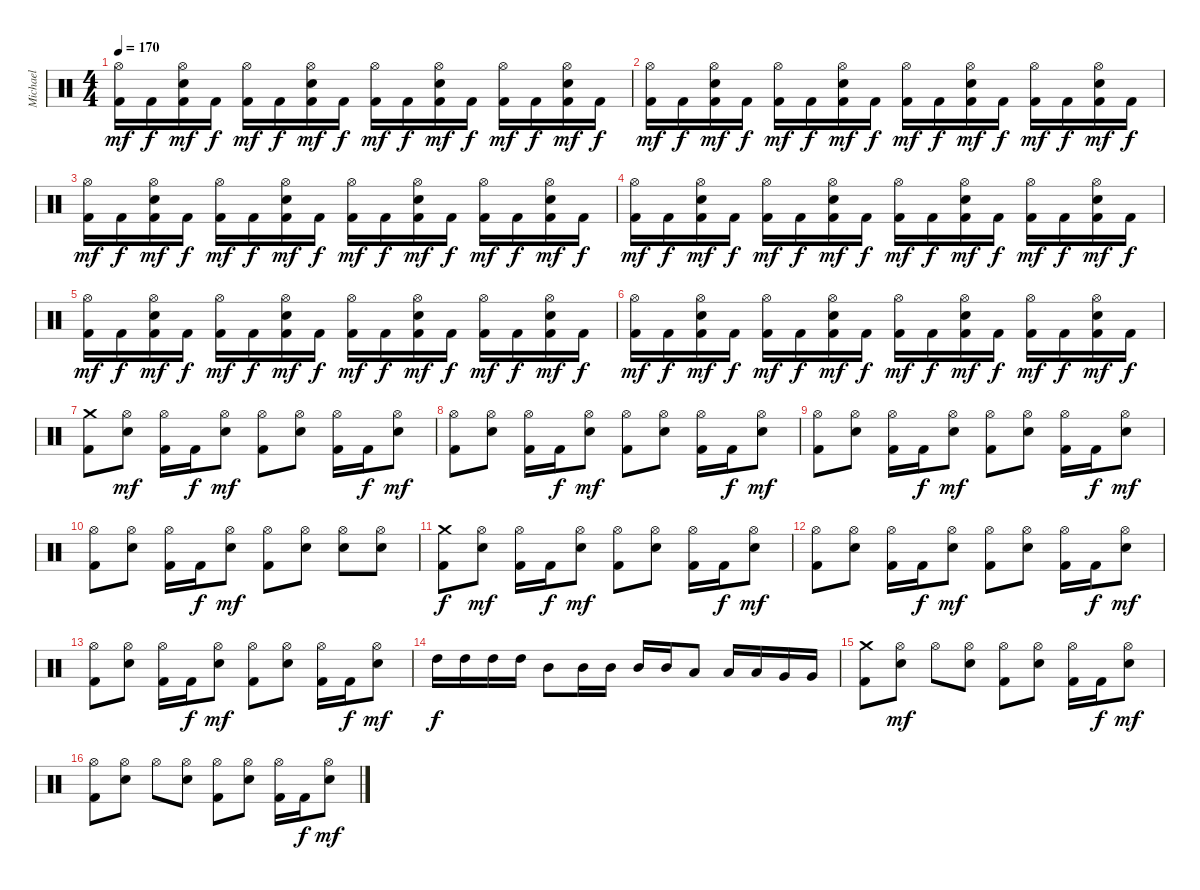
\track ("Michael" "Michael") {instrument percussion}
\staff {score}
\articulation defaults
\ts (4 4)
\tempo 170
\clef neutral
\ks c
("Hi-Hat (open)" "Kick (hit) 2").16{dy mf} "Kick (hit) 2".16{dy f} ("Hi-Hat (open)" "Electric Snare (hit)" "Kick (hit) 2").16{dy mf} "Kick (hit) 2".16{dy f} ("Hi-Hat (open)" "Kick (hit) 2").16{dy mf} "Kick (hit) 2".16{dy f} ("Hi-Hat (open)" "Electric Snare (hit)" "Kick (hit) 2").16{dy mf} "Kick (hit) 2".16{dy f} ("Hi-Hat (open)" "Kick (hit) 2").16{dy mf} "Kick (hit) 2".16{dy f} ("Hi-Hat (open)" "Electric Snare (hit)" "Kick (hit) 2").16{dy mf} "Kick (hit) 2".16{dy f} ("Hi-Hat (open)" "Kick (hit) 2").16{dy mf} "Kick (hit) 2".16{dy f} ("Hi-Hat (open)" "Electric Snare (hit)" "Kick (hit) 2").16{dy mf} "Kick (hit) 2".16{dy f} |
("Hi-Hat (open)" "Kick (hit) 2").16{dy mf} "Kick (hit) 2".16{dy f} ("Hi-Hat (open)" "Electric Snare (hit)" "Kick (hit) 2").16{dy mf} "Kick (hit) 2".16{dy f} ("Hi-Hat (open)" "Kick (hit) 2").16{dy mf} "Kick (hit) 2".16{dy f} ("Hi-Hat (open)" "Electric Snare (hit)" "Kick (hit) 2").16{dy mf} "Kick (hit) 2".16{dy f} ("Hi-Hat (open)" "Kick (hit) 2").16{dy mf} "Kick (hit) 2".16{dy f} ("Hi-Hat (open)" "Electric Snare (hit)" "Kick (hit) 2").16{dy mf} "Kick (hit) 2".16{dy f} ("Hi-Hat (open)" "Kick (hit) 2").16{dy mf} "Kick (hit) 2".16{dy f} ("Hi-Hat (open)" "Electric Snare (hit)" "Kick (hit) 2").16{dy mf} "Kick (hit) 2".16{dy f} |
("Hi-Hat (open)" "Kick (hit) 2").16{dy mf} "Kick (hit) 2".16{dy f} ("Hi-Hat (open)" "Electric Snare (hit)" "Kick (hit) 2").16{dy mf} "Kick (hit) 2".16{dy f} ("Hi-Hat (open)" "Kick (hit) 2").16{dy mf} "Kick (hit) 2".16{dy f} ("Hi-Hat (open)" "Electric Snare (hit)" "Kick (hit) 2").16{dy mf} "Kick (hit) 2".16{dy f} ("Hi-Hat (open)" "Kick (hit) 2").16{dy mf} "Kick (hit) 2".16{dy f} ("Hi-Hat (open)" "Electric Snare (hit)" "Kick (hit) 2").16{dy mf} "Kick (hit) 2".16{dy f} ("Hi-Hat (open)" "Kick (hit) 2").16{dy mf} "Kick (hit) 2".16{dy f} ("Hi-Hat (open)" "Electric Snare (hit)" "Kick (hit) 2").16{dy mf} "Kick (hit) 2".16{dy f} |
("Hi-Hat (open)" "Kick (hit) 2").16{dy mf} "Kick (hit) 2".16{dy f} ("Hi-Hat (open)" "Electric Snare (hit)" "Kick (hit) 2").16{dy mf} "Kick (hit) 2".16{dy f} ("Hi-Hat (open)" "Kick (hit) 2").16{dy mf} "Kick (hit) 2".16{dy f} ("Hi-Hat (open)" "Electric Snare (hit)" "Kick (hit) 2").16{dy mf} "Kick (hit) 2".16{dy f} ("Hi-Hat (open)" "Kick (hit) 2").16{dy mf} "Kick (hit) 2".16{dy f} ("Hi-Hat (open)" "Electric Snare (hit)" "Kick (hit) 2").16{dy mf} "Kick (hit) 2".16{dy f} ("Hi-Hat (open)" "Kick (hit) 2").16{dy mf} "Kick (hit) 2".16{dy f} ("Hi-Hat (open)" "Electric Snare (hit)" "Kick (hit) 2").16{dy mf} "Kick (hit) 2".16{dy f} |
("Hi-Hat (open)" "Kick (hit) 2").16{dy mf} "Kick (hit) 2".16{dy f} ("Hi-Hat (open)" "Electric Snare (hit)" "Kick (hit) 2").16{dy mf} "Kick (hit) 2".16{dy f} ("Hi-Hat (open)" "Kick (hit) 2").16{dy mf} "Kick (hit) 2".16{dy f} ("Hi-Hat (open)" "Electric Snare (hit)" "Kick (hit) 2").16{dy mf} "Kick (hit) 2".16{dy f} ("Hi-Hat (open)" "Kick (hit) 2").16{dy mf} "Kick (hit) 2".16{dy f} ("Hi-Hat (open)" "Electric Snare (hit)" "Kick (hit) 2").16{dy mf} "Kick (hit) 2".16{dy f} ("Hi-Hat (open)" "Kick (hit) 2").16{dy mf} "Kick (hit) 2".16{dy f} ("Hi-Hat (open)" "Electric Snare (hit)" "Kick (hit) 2").16{dy mf} "Kick (hit) 2".16{dy f} |
("Hi-Hat (open)" "Kick (hit) 2").16{dy mf} "Kick (hit) 2".16{dy f} ("Hi-Hat (open)" "Electric Snare (hit)" "Kick (hit) 2").16{dy mf} "Kick (hit) 2".16{dy f} ("Hi-Hat (open)" "Kick (hit) 2").16{dy mf} "Kick (hit) 2".16{dy f} ("Hi-Hat (open)" "Electric Snare (hit)" "Kick (hit) 2").16{dy mf} "Kick (hit) 2".16{dy f} ("Hi-Hat (open)" "Kick (hit) 2").16{dy mf} "Kick (hit) 2".16{dy f} ("Hi-Hat (open)" "Electric Snare (hit)" "Kick (hit) 2").16{dy mf} "Kick (hit) 2".16{dy f} ("Hi-Hat (open)" "Kick (hit) 2").16{dy mf} "Kick (hit) 2".16{dy f} ("Hi-Hat (open)" "Electric Snare (hit)" "Kick (hit) 2").16{dy mf} "Kick (hit) 2".16{dy f} |
("Crash medium (hit)" "Kick (hit) 2").8 ("Hi-Hat (open)" "Electric Snare (hit)").8{dy mf} ("Hi-Hat (open)" "Kick (hit) 2").16 "Kick (hit) 2".16{dy f} ("Hi-Hat (open)" "Electric Snare (hit)").8{dy mf} ("Hi-Hat (open)" "Kick (hit) 2").8 ("Hi-Hat (open)" "Electric Snare (hit)").8 ("Hi-Hat (open)" "Kick (hit) 2").16 "Kick (hit) 2".16{dy f} ("Hi-Hat (open)" "Electric Snare (hit)").8{dy mf} |
("Hi-Hat (open)" "Kick (hit) 2").8 ("Hi-Hat (open)" "Electric Snare (hit)").8 ("Hi-Hat (open)" "Kick (hit) 2").16 "Kick (hit) 2".16{dy f} ("Hi-Hat (open)" "Electric Snare (hit)").8{dy mf} ("Hi-Hat (open)" "Kick (hit) 2").8 ("Hi-Hat (open)" "Electric Snare (hit)").8 ("Hi-Hat (open)" "Kick (hit) 2").16 "Kick (hit) 2".16{dy f} ("Hi-Hat (open)" "Electric Snare (hit)").8{dy mf} |
("Hi-Hat (open)" "Kick (hit) 2").8 ("Hi-Hat (open)" "Electric Snare (hit)").8 ("Hi-Hat (open)" "Kick (hit) 2").16 "Kick (hit) 2".16{dy f} ("Hi-Hat (open)" "Electric Snare (hit)").8{dy mf} ("Hi-Hat (open)" "Kick (hit) 2").8 ("Hi-Hat (open)" "Electric Snare (hit)").8 ("Hi-Hat (open)" "Kick (hit) 2").16 "Kick (hit) 2".16{dy f} ("Hi-Hat (open)" "Electric Snare (hit)").8{dy mf} |
("Hi-Hat (open)" "Kick (hit) 2").8 ("Hi-Hat (open)" "Electric Snare (hit)").8 ("Hi-Hat (open)" "Kick (hit) 2").16 "Kick (hit) 2".16{dy f} ("Hi-Hat (open)" "Electric Snare (hit)").8{dy mf} ("Hi-Hat (open)" "Kick (hit) 2").8 ("Hi-Hat (open)" "Electric Snare (hit)").8 ("Hi-Hat (open)" "Electric Snare (hit)").8 ("Hi-Hat (open)" "Electric Snare (hit)").8 |
("Crash medium (hit)" "Kick (hit) 2").8{dy f} ("Hi-Hat (open)" "Electric Snare (hit)").8{dy mf} ("Hi-Hat (open)" "Kick (hit) 2").16 "Kick (hit) 2".16{dy f} ("Hi-Hat (open)" "Electric Snare (hit)").8{dy mf} ("Hi-Hat (open)" "Kick (hit) 2").8 ("Hi-Hat (open)" "Electric Snare (hit)").8 ("Hi-Hat (open)" "Kick (hit) 2").16 "Kick (hit) 2".16{dy f} ("Hi-Hat (open)" "Electric Snare (hit)").8{dy mf} |
("Hi-Hat (open)" "Kick (hit) 2").8 ("Hi-Hat (open)" "Electric Snare (hit)").8 ("Hi-Hat (open)" "Kick (hit) 2").16 "Kick (hit) 2".16{dy f} ("Hi-Hat (open)" "Electric Snare (hit)").8{dy mf} ("Hi-Hat (open)" "Kick (hit) 2").8 ("Hi-Hat (open)" "Electric Snare (hit)").8 ("Hi-Hat (open)" "Kick (hit) 2").16 "Kick (hit) 2".16{dy f} ("Hi-Hat (open)" "Electric Snare (hit)").8{dy mf} |
("Hi-Hat (open)" "Kick (hit) 2").8 ("Hi-Hat (open)" "Electric Snare (hit)").8 ("Hi-Hat (open)" "Kick (hit) 2").16 "Kick (hit) 2".16{dy f} ("Hi-Hat (open)" "Electric Snare (hit)").8{dy mf} ("Hi-Hat (open)" "Kick (hit) 2").8 ("Hi-Hat (open)" "Electric Snare (hit)").8 ("Hi-Hat (open)" "Kick (hit) 2").16 "Kick (hit) 2".16{dy f} ("Hi-Hat (open)" "Electric Snare (hit)").8{dy mf} |
"High Tom (hit)".16{dy f} "High Tom (hit)".16 "High Tom (hit)".16 "High Tom (hit)".16 "Mid Tom (hit)".8 "Mid Tom (hit)".16 "Mid Tom (hit)".16 "Mid Tom (hit)".16 "Mid Tom (hit)".16 "Low Tom (hit)".8 "Low Tom (hit)".16 "Low Tom (hit)".16 "Very Low Tom (hit)".16 "Very Low Tom (hit)".16 |
("Crash medium (hit)" "Kick (hit) 2").8 ("Hi-Hat (open)" "Electric Snare (hit)").8{dy mf} "Hi-Hat (open)".8 ("Hi-Hat (open)" "Electric Snare (hit)").8 ("Hi-Hat (open)" "Kick (hit) 2").8 ("Hi-Hat (open)" "Electric Snare (hit)").8 ("Hi-Hat (open)" "Kick (hit) 2").16 "Kick (hit) 2".16{dy f} ("Hi-Hat (open)" "Electric Snare (hit)").8{dy mf} |
("Hi-Hat (open)" "Kick (hit) 2").8 ("Hi-Hat (open)" "Electric Snare (hit)").8 "Hi-Hat (open)".8 ("Hi-Hat (open)" "Electric Snare (hit)").8 ("Hi-Hat (open)" "Kick (hit) 2").8 ("Hi-Hat (open)" "Electric Snare (hit)").8 ("Hi-Hat (open)" "Kick (hit) 2").16 "Kick (hit) 2".16{dy f} ("Hi-Hat (open)" "Electric Snare (hit)").8{dy mf}
